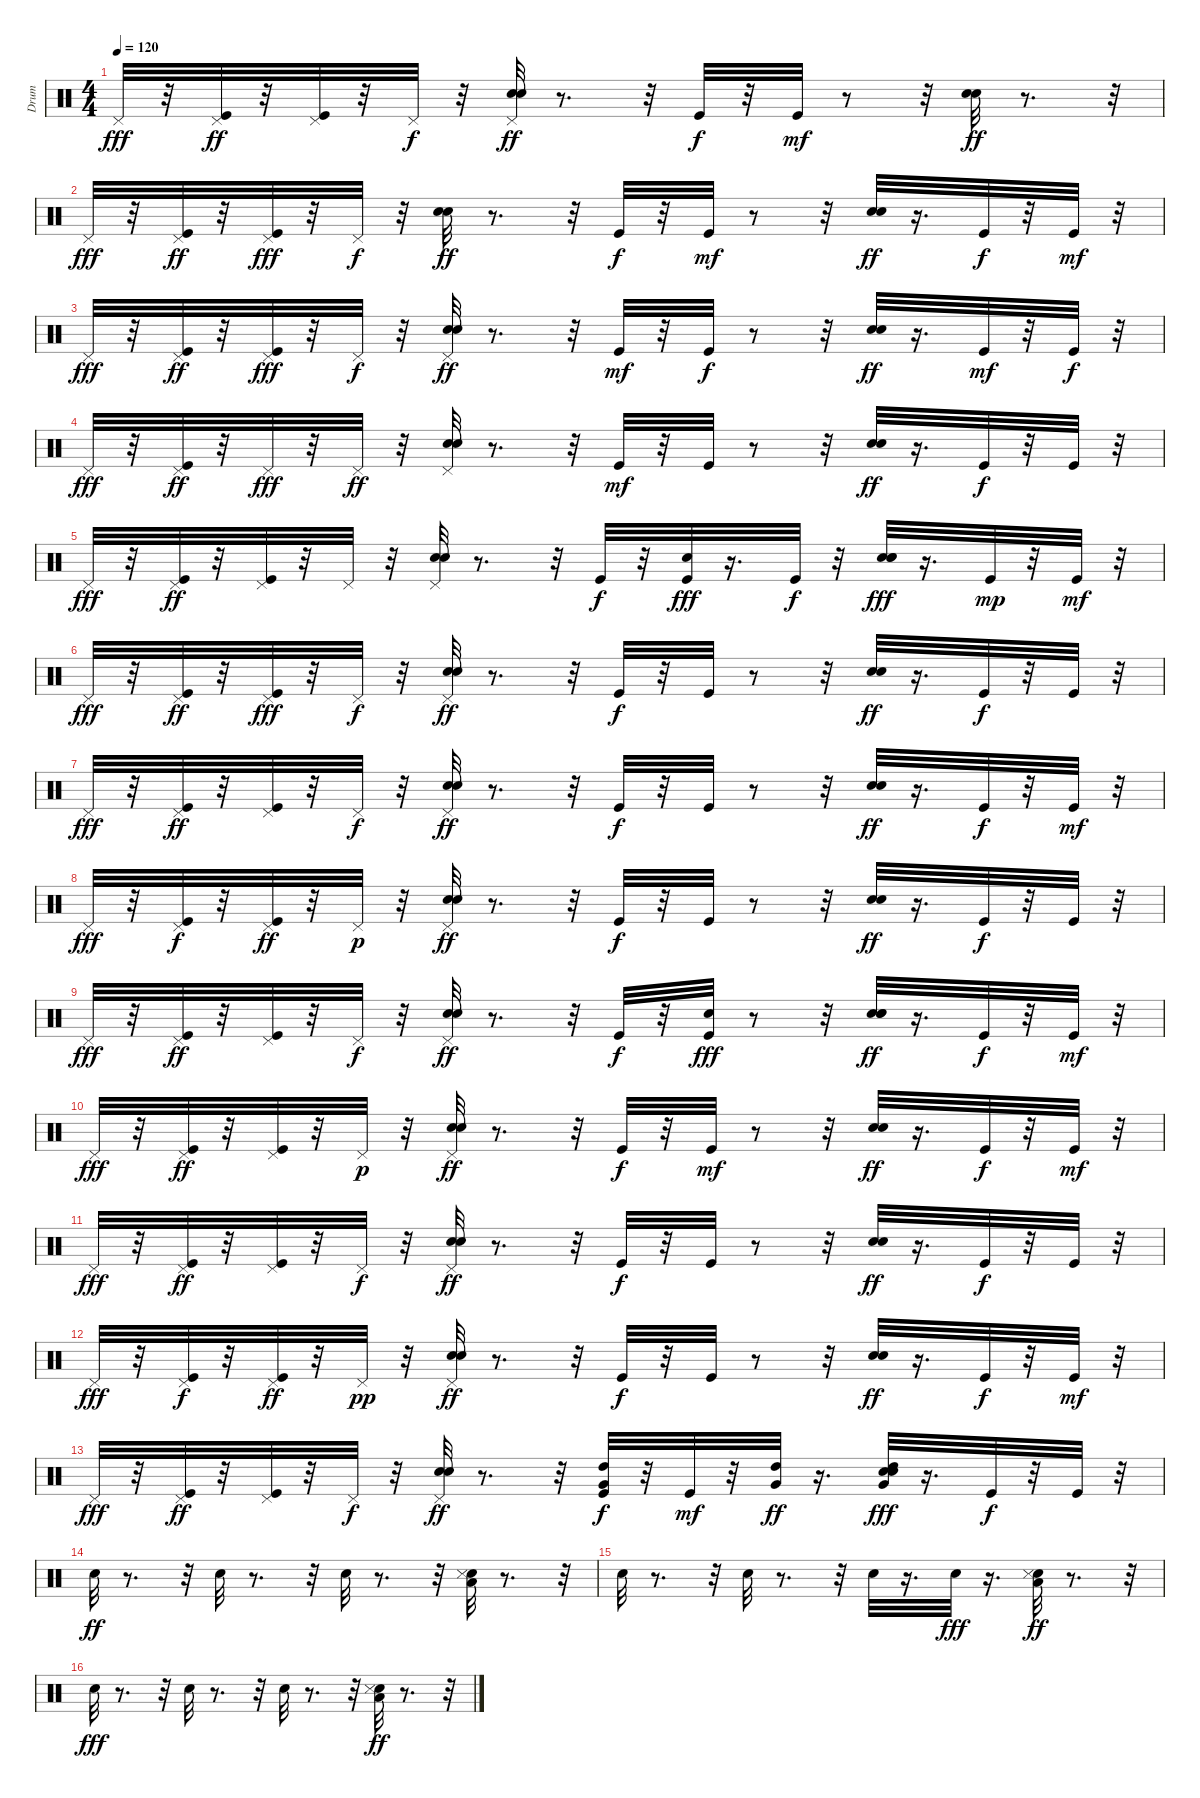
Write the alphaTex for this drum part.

\track ("Drum" "Drum") {instrument percussion}
\staff {score}
\articulation defaults
\ts (4 4)
\tempo 120
\clef neutral
\ks c "Pedal Hi-Hat (hit)".32{dy fff}
r.32 ("Kick (hit)" "Pedal Hi-Hat (hit)").32{dy ff} r.32 ("Kick (hit)" "Pedal Hi-Hat (hit)").32 r.32 "Pedal Hi-Hat (hit)".32{dy f} r.32 ("Snare (hit) 2" "Electric Snare (hit)" "Pedal Hi-Hat (hit)").32{dy ff} r.8{d} r.32 "Kick (hit)".32{dy f} r.32 "Kick (hit)".32{dy mf} r.8 r.32 ("Snare (hit) 2" "Electric Snare (hit)").32{dy ff} r.8{d} r.32 |
"Pedal Hi-Hat (hit)".32{dy fff} r.32 ("Kick (hit)" "Pedal Hi-Hat (hit)").32{dy ff} r.32 ("Kick (hit)" "Pedal Hi-Hat (hit)").32{dy fff} r.32 "Pedal Hi-Hat (hit)".32{dy f} r.32 ("Snare (hit) 2" "Electric Snare (hit)").32{dy ff} r.8{d} r.32 "Kick (hit)".32{dy f} r.32 "Kick (hit)".32{dy mf} r.8 r.32 ("Snare (hit) 2" "Electric Snare (hit)").32{dy ff} r.16{d} "Kick (hit)".32{dy f} r.32 "Kick (hit)".32{dy mf} r.32 |
"Pedal Hi-Hat (hit)".32{dy fff} r.32 ("Kick (hit)" "Pedal Hi-Hat (hit)").32{dy ff} r.32 ("Kick (hit)" "Pedal Hi-Hat (hit)").32{dy fff} r.32 "Pedal Hi-Hat (hit)".32{dy f} r.32 ("Snare (hit) 2" "Electric Snare (hit)" "Pedal Hi-Hat (hit)").32{dy ff} r.8{d} r.32 "Kick (hit)".32{dy mf} r.32 "Kick (hit)".32{dy f} r.8 r.32 ("Electric Snare (hit)" "Snare (hit) 2").32{dy ff} r.16{d} "Kick (hit)".32{dy mf} r.32 "Kick (hit)".32{dy f} r.32 |
"Pedal Hi-Hat (hit)".32{dy fff} r.32 ("Kick (hit)" "Pedal Hi-Hat (hit)").32{dy ff} r.32 "Pedal Hi-Hat (hit)".32{dy fff} r.32 "Pedal Hi-Hat (hit)".32{dy ff} r.32 ("Snare (hit) 2" "Electric Snare (hit)" "Pedal Hi-Hat (hit)").32 r.8{d} r.32 "Kick (hit)".32{dy mf} r.32 "Kick (hit)".32 r.8 r.32 ("Snare (hit) 2" "Electric Snare (hit)").32{dy ff} r.16{d} "Kick (hit)".32{dy f} r.32 "Kick (hit)".32 r.32 |
"Pedal Hi-Hat (hit)".32{dy fff} r.32 ("Kick (hit)" "Pedal Hi-Hat (hit)").32{dy ff} r.32 ("Kick (hit)" "Pedal Hi-Hat (hit)").32 r.32 "Pedal Hi-Hat (hit)".32 r.32 ("Snare (hit) 2" "Electric Snare (hit)" "Pedal Hi-Hat (hit)").32 r.8{d} r.32 "Kick (hit)".32{dy f} r.32 ("Kick (hit)" "Hand Clap (hit)").32{dy fff} r.16{d} "Kick (hit)".32{dy f} r.32 ("Snare (hit) 2" "Electric Snare (hit)" "Hand Clap (hit)").32{dy fff} r.16{d} "Kick (hit)".32{dy mp} r.32 "Kick (hit)".32{dy mf} r.32 |
"Pedal Hi-Hat (hit)".32{dy fff} r.32 ("Kick (hit)" "Pedal Hi-Hat (hit)").32{dy ff} r.32 ("Kick (hit)" "Pedal Hi-Hat (hit)").32{dy fff} r.32 "Pedal Hi-Hat (hit)".32{dy f} r.32 ("Snare (hit) 2" "Electric Snare (hit)" "Pedal Hi-Hat (hit)").32{dy ff} r.8{d} r.32 "Kick (hit)".32{dy f} r.32 "Kick (hit)".32 r.8 r.32 ("Electric Snare (hit)" "Snare (hit) 2").32{dy ff} r.16{d} "Kick (hit)".32{dy f} r.32 "Kick (hit)".32 r.32 |
"Pedal Hi-Hat (hit)".32{dy fff} r.32 ("Kick (hit)" "Pedal Hi-Hat (hit)").32{dy ff} r.32 ("Kick (hit)" "Pedal Hi-Hat (hit)").32 r.32 "Pedal Hi-Hat (hit)".32{dy f} r.32 ("Snare (hit) 2" "Electric Snare (hit)" "Pedal Hi-Hat (hit)").32{dy ff} r.8{d} r.32 "Kick (hit)".32{dy f} r.32 "Kick (hit)".32 r.8 r.32 ("Snare (hit) 2" "Electric Snare (hit)").32{dy ff} r.16{d} "Kick (hit)".32{dy f} r.32 "Kick (hit)".32{dy mf} r.32 |
"Pedal Hi-Hat (hit)".32{dy fff} r.32 ("Pedal Hi-Hat (hit)" "Kick (hit)").32{dy f} r.32 ("Kick (hit)" "Pedal Hi-Hat (hit)").32{dy ff} r.32 "Pedal Hi-Hat (hit)".32{dy p} r.32 ("Snare (hit) 2" "Electric Snare (hit)" "Pedal Hi-Hat (hit)").32{dy ff} r.8{d} r.32 "Kick (hit)".32{dy f} r.32 "Kick (hit)".32 r.8 r.32 ("Snare (hit) 2" "Electric Snare (hit)").32{dy ff} r.16{d} "Kick (hit)".32{dy f} r.32 "Kick (hit)".32 r.32 |
"Pedal Hi-Hat (hit)".32{dy fff} r.32 ("Kick (hit)" "Pedal Hi-Hat (hit)").32{dy ff} r.32 ("Kick (hit)" "Pedal Hi-Hat (hit)").32 r.32 "Pedal Hi-Hat (hit)".32{dy f} r.32 ("Snare (hit) 2" "Electric Snare (hit)" "Pedal Hi-Hat (hit)").32{dy ff} r.8{d} r.32 "Kick (hit)".32{dy f} r.32 ("Kick (hit)" "Hand Clap (hit)").32{dy fff} r.8 r.32 ("Hand Clap (hit)" "Snare (hit) 2" "Electric Snare (hit)").32{dy ff} r.16{d} "Kick (hit)".32{dy f} r.32 "Kick (hit)".32{dy mf} r.32 |
"Pedal Hi-Hat (hit)".32{dy fff} r.32 ("Kick (hit)" "Pedal Hi-Hat (hit)").32{dy ff} r.32 ("Kick (hit)" "Pedal Hi-Hat (hit)").32 r.32 "Pedal Hi-Hat (hit)".32{dy p} r.32 ("Snare (hit) 2" "Electric Snare (hit)" "Pedal Hi-Hat (hit)").32{dy ff} r.8{d} r.32 "Kick (hit)".32{dy f} r.32 "Kick (hit)".32{dy mf} r.8 r.32 ("Snare (hit) 2" "Electric Snare (hit)").32{dy ff} r.16{d} "Kick (hit)".32{dy f} r.32 "Kick (hit)".32{dy mf} r.32 |
"Pedal Hi-Hat (hit)".32{dy fff} r.32 ("Pedal Hi-Hat (hit)" "Kick (hit)").32{dy ff} r.32 ("Kick (hit)" "Pedal Hi-Hat (hit)").32 r.32 "Pedal Hi-Hat (hit)".32{dy f} r.32 ("Electric Snare (hit)" "Snare (hit) 2" "Pedal Hi-Hat (hit)").32{dy ff} r.8{d} r.32 "Kick (hit)".32{dy f} r.32 "Kick (hit)".32 r.8 r.32 ("Electric Snare (hit)" "Snare (hit) 2").32{dy ff} r.16{d} "Kick (hit)".32{dy f} r.32 "Kick (hit)".32 r.32 |
"Pedal Hi-Hat (hit)".32{dy fff} r.32 ("Kick (hit)" "Pedal Hi-Hat (hit)").32{dy f} r.32 ("Kick (hit)" "Pedal Hi-Hat (hit)").32{dy ff} r.32 "Pedal Hi-Hat (hit)".32{dy pp} r.32 ("Electric Snare (hit)" "Snare (hit) 2" "Pedal Hi-Hat (hit)").32{dy ff} r.8{d} r.32 "Kick (hit)".32{dy f} r.32 "Kick (hit)".32 r.8 r.32 ("Snare (hit) 2" "Electric Snare (hit)").32{dy ff} r.16{d} "Kick (hit)".32{dy f} r.32 "Kick (hit)".32{dy mf} r.32 |
"Pedal Hi-Hat (hit)".32{dy fff} r.32 ("Kick (hit)" "Pedal Hi-Hat (hit)").32{dy ff} r.32 ("Kick (hit)" "Pedal Hi-Hat (hit)").32 r.32 "Pedal Hi-Hat (hit)".32{dy f} r.32 ("Snare (hit) 2" "Electric Snare (hit)" "Pedal Hi-Hat (hit)").32{dy ff} r.8{d} r.32 ("High Tom (hit)" "Very Low Tom (hit)" "Kick (hit)").32{dy f} r.32 "Kick (hit)".32{dy mf} r.32 ("Very Low Tom (hit)" "High Tom (hit)").32{dy ff} r.16{d} ("High Tom (hit)" "Snare (hit) 2" "Electric Snare (hit)" "Very Low Tom (hit)").32{dy fff} r.16{d} "Kick (hit)".32{dy f} r.32 "Kick (hit)".32 r.32 |
"Hand Clap (hit)".32{dy ff} r.8{d} r.32 "Hand Clap (hit)".32 r.8{d} r.32 "Hand Clap (hit)".32 r.8{d} r.32 ("Hand Clap (hit)" "Snare (side stick) 3" "Low Floor Tom (hit)").32 r.8{d} r.32 |
"Hand Clap (hit)".32 r.8{d} r.32 "Hand Clap (hit)".32 r.8{d} r.32 "Hand Clap (hit)".32 r.16{d} "Hand Clap (hit)".32{dy fff} r.16{d} ("Hand Clap (hit)" "Snare (side stick) 3" "Low Floor Tom (hit)").32{dy ff} r.8{d} r.32 |
"Hand Clap (hit)".32{dy fff} r.8{d} r.32 "Hand Clap (hit)".32 r.8{d} r.32 "Hand Clap (hit)".32 r.8{d} r.32 ("Hand Clap (hit)" "Snare (side stick) 3" "Low Floor Tom (hit)").32{dy ff} r.8{d} r.32
